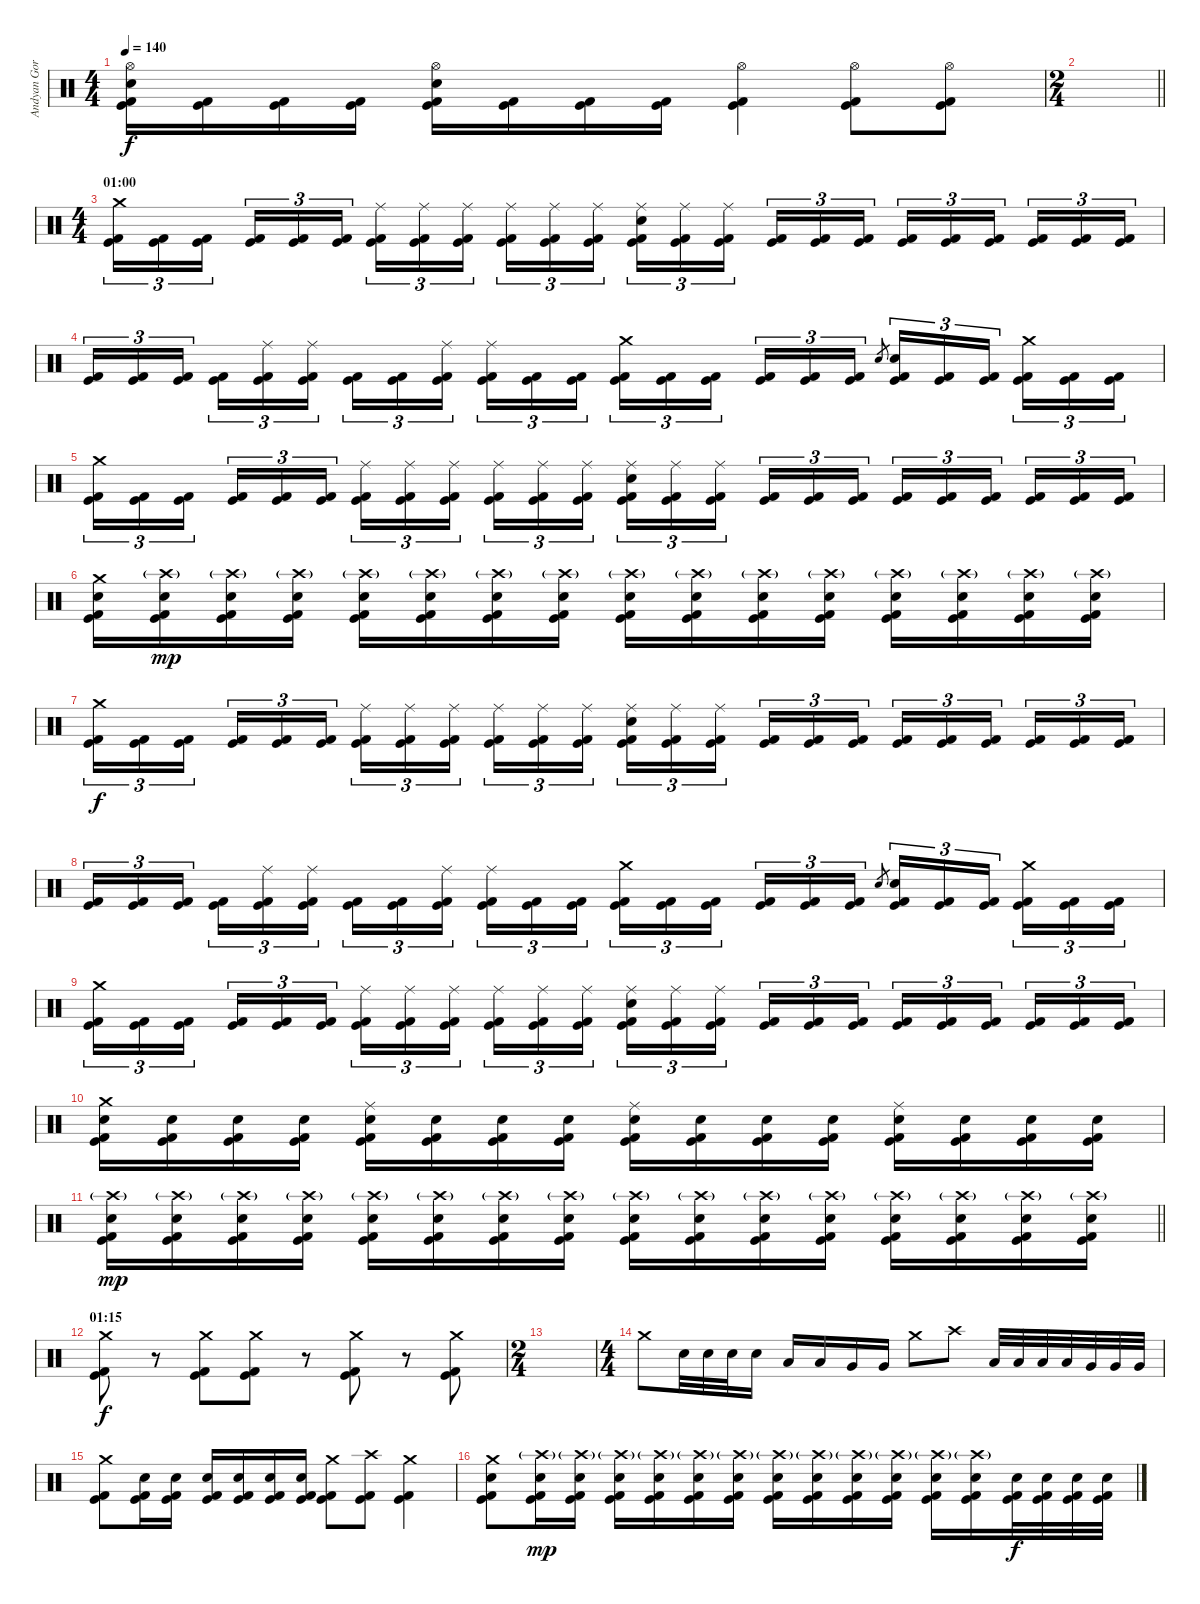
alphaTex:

\track ("Andyan Gorust" "Andyan Gor") {instrument percussion}
\staff {score}
\articulation defaults
\ts (4 4)
\tempo 140
\clef neutral
\ks c
("Hi-Hat (open)" "Electric Snare (hit)" "Kick (hit)" "Kick (hit) 2").16{dy f} ("Kick (hit)" "Kick (hit) 2").16 ("Kick (hit)" "Kick (hit) 2").16 ("Kick (hit)" "Kick (hit) 2").16 ("Hi-Hat (open)" "Electric Snare (hit)" "Kick (hit)" "Kick (hit) 2").16 ("Kick (hit)" "Kick (hit) 2").16 ("Kick (hit)" "Kick (hit) 2").16 ("Kick (hit)" "Kick (hit) 2").16 ("Hi-Hat (open)" "Kick (hit)" "Kick (hit) 2").4 ("Hi-Hat (open)" "Kick (hit)" "Kick (hit) 2").8 ("Hi-Hat (open)" "Kick (hit)" "Kick (hit) 2").8 |
\ts (2 4)
\barLineRight lightlight
|
\ts (4 4)
\section ("" "01:00")
("Crash medium (hit)" "Kick (hit)" "Kick (hit) 2").16{tu (3 2)} ("Kick (hit)" "Kick (hit) 2").16{tu (3 2)} ("Kick (hit)" "Kick (hit) 2").16{tu (3 2) beam splitsecondary} ("Kick (hit)" "Kick (hit) 2").16{tu (3 2)} ("Kick (hit)" "Kick (hit) 2").16{tu (3 2)} ("Kick (hit)" "Kick (hit) 2").16{tu (3 2)} ("Ride (middle)" "Kick (hit)" "Kick (hit) 2").16{tu (3 2)} ("Ride (middle)" "Kick (hit)" "Kick (hit) 2").16{tu (3 2)} ("Ride (middle)" "Kick (hit)" "Kick (hit) 2").16{tu (3 2) beam splitsecondary} ("Ride (middle)" "Kick (hit)" "Kick (hit) 2").16{tu (3 2)} ("Ride (middle)" "Kick (hit)" "Kick (hit) 2").16{tu (3 2)} ("Ride (middle)" "Kick (hit)" "Kick (hit) 2").16{tu (3 2)} ("Ride (middle)" "Electric Snare (hit)" "Kick (hit)" "Kick (hit) 2").16{tu (3 2)} ("Ride (middle)" "Kick (hit)" "Kick (hit) 2").16{tu (3 2)} ("Ride (middle)" "Kick (hit)" "Kick (hit) 2").16{tu (3 2) beam splitsecondary} ("Kick (hit)" "Kick (hit) 2").16{tu (3 2)} ("Kick (hit)" "Kick (hit) 2").16{tu (3 2)} ("Kick (hit)" "Kick (hit) 2").16{tu (3 2)} ("Kick (hit)" "Kick (hit) 2").16{tu (3 2)} ("Kick (hit)" "Kick (hit) 2").16{tu (3 2)} ("Kick (hit)" "Kick (hit) 2").16{tu (3 2) beam splitsecondary} ("Kick (hit)" "Kick (hit) 2").16{tu (3 2)} ("Kick (hit)" "Kick (hit) 2").16{tu (3 2)} ("Kick (hit)" "Kick (hit) 2").16{tu (3 2)} |
("Kick (hit)" "Kick (hit) 2").16{tu (3 2)} ("Kick (hit)" "Kick (hit) 2").16{tu (3 2)} ("Kick (hit)" "Kick (hit) 2").16{tu (3 2) beam splitsecondary} ("Kick (hit)" "Kick (hit) 2").16{tu (3 2)} ("Ride (middle)" "Kick (hit)" "Kick (hit) 2").16{tu (3 2)} ("Ride (middle)" "Kick (hit)" "Kick (hit) 2").16{tu (3 2)} ("Kick (hit)" "Kick (hit) 2").16{tu (3 2)} ("Kick (hit)" "Kick (hit) 2").16{tu (3 2)} ("Ride (middle)" "Kick (hit)" "Kick (hit) 2").16{tu (3 2) beam splitsecondary} ("Ride (middle)" "Kick (hit)" "Kick (hit) 2").16{tu (3 2)} ("Kick (hit)" "Kick (hit) 2").16{tu (3 2)} ("Kick (hit)" "Kick (hit) 2").16{tu (3 2)} ("Crash medium (hit)" "Kick (hit)" "Kick (hit) 2").16{tu (3 2)} ("Kick (hit)" "Kick (hit) 2").16{tu (3 2)} ("Kick (hit)" "Kick (hit) 2").16{tu (3 2) beam splitsecondary} ("Kick (hit)" "Kick (hit) 2").16{tu (3 2)} ("Kick (hit)" "Kick (hit) 2").16{tu (3 2)} ("Kick (hit)" "Kick (hit) 2").16{tu (3 2)} "Electric Snare (hit)".8{gr} ("Electric Snare (hit)" "Kick (hit)" "Kick (hit) 2").16{tu (3 2)} ("Kick (hit)" "Kick (hit) 2").16{tu (3 2)} ("Kick (hit)" "Kick (hit) 2").16{tu (3 2) beam splitsecondary} ("Crash medium (hit)" "Kick (hit)" "Kick (hit) 2").16{tu (3 2)} ("Kick (hit)" "Kick (hit) 2").16{tu (3 2)} ("Kick (hit)" "Kick (hit) 2").16{tu (3 2)} |
("Crash medium (hit)" "Kick (hit)" "Kick (hit) 2").16{tu (3 2)} ("Kick (hit)" "Kick (hit) 2").16{tu (3 2)} ("Kick (hit)" "Kick (hit) 2").16{tu (3 2) beam splitsecondary} ("Kick (hit)" "Kick (hit) 2").16{tu (3 2)} ("Kick (hit)" "Kick (hit) 2").16{tu (3 2)} ("Kick (hit)" "Kick (hit) 2").16{tu (3 2)} ("Ride (middle)" "Kick (hit)" "Kick (hit) 2").16{tu (3 2)} ("Ride (middle)" "Kick (hit)" "Kick (hit) 2").16{tu (3 2)} ("Ride (middle)" "Kick (hit)" "Kick (hit) 2").16{tu (3 2) beam splitsecondary} ("Ride (middle)" "Kick (hit)" "Kick (hit) 2").16{tu (3 2)} ("Ride (middle)" "Kick (hit)" "Kick (hit) 2").16{tu (3 2)} ("Ride (middle)" "Kick (hit)" "Kick (hit) 2").16{tu (3 2)} ("Ride (middle)" "Electric Snare (hit)" "Kick (hit)" "Kick (hit) 2").16{tu (3 2)} ("Ride (middle)" "Kick (hit)" "Kick (hit) 2").16{tu (3 2)} ("Ride (middle)" "Kick (hit)" "Kick (hit) 2").16{tu (3 2) beam splitsecondary} ("Kick (hit)" "Kick (hit) 2").16{tu (3 2)} ("Kick (hit)" "Kick (hit) 2").16{tu (3 2)} ("Kick (hit)" "Kick (hit) 2").16{tu (3 2)} ("Kick (hit)" "Kick (hit) 2").16{tu (3 2)} ("Kick (hit)" "Kick (hit) 2").16{tu (3 2)} ("Kick (hit)" "Kick (hit) 2").16{tu (3 2) beam splitsecondary} ("Kick (hit)" "Kick (hit) 2").16{tu (3 2)} ("Kick (hit)" "Kick (hit) 2").16{tu (3 2)} ("Kick (hit)" "Kick (hit) 2").16{tu (3 2)} |
("Crash medium (hit)" "Electric Snare (hit)" "Kick (hit)" "Kick (hit) 2").16 ("Crash high (hit)"{g} "Electric Snare (hit)" "Kick (hit)" "Kick (hit) 2").16{dy mp} ("Crash high (hit)"{g} "Electric Snare (hit)" "Kick (hit)" "Kick (hit) 2").16 ("Crash high (hit)"{g} "Electric Snare (hit)" "Kick (hit)" "Kick (hit) 2").16 ("Crash high (hit)"{g} "Electric Snare (hit)" "Kick (hit)" "Kick (hit) 2").16 ("Crash high (hit)"{g} "Electric Snare (hit)" "Kick (hit)" "Kick (hit) 2").16 ("Crash high (hit)"{g} "Electric Snare (hit)" "Kick (hit)" "Kick (hit) 2").16 ("Crash high (hit)"{g} "Electric Snare (hit)" "Kick (hit)" "Kick (hit) 2").16 ("Crash high (hit)"{g} "Electric Snare (hit)" "Kick (hit)" "Kick (hit) 2").16 ("Crash high (hit)"{g} "Electric Snare (hit)" "Kick (hit)" "Kick (hit) 2").16 ("Crash high (hit)"{g} "Electric Snare (hit)" "Kick (hit)" "Kick (hit) 2").16 ("Crash high (hit)"{g} "Electric Snare (hit)" "Kick (hit)" "Kick (hit) 2").16 ("Crash high (hit)"{g} "Electric Snare (hit)" "Kick (hit)" "Kick (hit) 2").16 ("Crash high (hit)"{g} "Electric Snare (hit)" "Kick (hit)" "Kick (hit) 2").16 ("Crash high (hit)"{g} "Electric Snare (hit)" "Kick (hit)" "Kick (hit) 2").16 ("Crash high (hit)"{g} "Electric Snare (hit)" "Kick (hit)" "Kick (hit) 2").16 |
("Crash medium (hit)" "Kick (hit)" "Kick (hit) 2").16{tu (3 2) dy f} ("Kick (hit)" "Kick (hit) 2").16{tu (3 2)} ("Kick (hit)" "Kick (hit) 2").16{tu (3 2) beam splitsecondary} ("Kick (hit)" "Kick (hit) 2").16{tu (3 2)} ("Kick (hit)" "Kick (hit) 2").16{tu (3 2)} ("Kick (hit)" "Kick (hit) 2").16{tu (3 2)} ("Ride (middle)" "Kick (hit)" "Kick (hit) 2").16{tu (3 2)} ("Ride (middle)" "Kick (hit)" "Kick (hit) 2").16{tu (3 2)} ("Ride (middle)" "Kick (hit)" "Kick (hit) 2").16{tu (3 2) beam splitsecondary} ("Ride (middle)" "Kick (hit)" "Kick (hit) 2").16{tu (3 2)} ("Ride (middle)" "Kick (hit)" "Kick (hit) 2").16{tu (3 2)} ("Ride (middle)" "Kick (hit)" "Kick (hit) 2").16{tu (3 2)} ("Ride (middle)" "Electric Snare (hit)" "Kick (hit)" "Kick (hit) 2").16{tu (3 2)} ("Ride (middle)" "Kick (hit)" "Kick (hit) 2").16{tu (3 2)} ("Ride (middle)" "Kick (hit)" "Kick (hit) 2").16{tu (3 2) beam splitsecondary} ("Kick (hit)" "Kick (hit) 2").16{tu (3 2)} ("Kick (hit)" "Kick (hit) 2").16{tu (3 2)} ("Kick (hit)" "Kick (hit) 2").16{tu (3 2)} ("Kick (hit)" "Kick (hit) 2").16{tu (3 2)} ("Kick (hit)" "Kick (hit) 2").16{tu (3 2)} ("Kick (hit)" "Kick (hit) 2").16{tu (3 2) beam splitsecondary} ("Kick (hit)" "Kick (hit) 2").16{tu (3 2)} ("Kick (hit)" "Kick (hit) 2").16{tu (3 2)} ("Kick (hit)" "Kick (hit) 2").16{tu (3 2)} |
("Kick (hit)" "Kick (hit) 2").16{tu (3 2)} ("Kick (hit)" "Kick (hit) 2").16{tu (3 2)} ("Kick (hit)" "Kick (hit) 2").16{tu (3 2) beam splitsecondary} ("Kick (hit)" "Kick (hit) 2").16{tu (3 2)} ("Ride (middle)" "Kick (hit)" "Kick (hit) 2").16{tu (3 2)} ("Ride (middle)" "Kick (hit)" "Kick (hit) 2").16{tu (3 2)} ("Kick (hit)" "Kick (hit) 2").16{tu (3 2)} ("Kick (hit)" "Kick (hit) 2").16{tu (3 2)} ("Ride (middle)" "Kick (hit)" "Kick (hit) 2").16{tu (3 2) beam splitsecondary} ("Ride (middle)" "Kick (hit)" "Kick (hit) 2").16{tu (3 2)} ("Kick (hit)" "Kick (hit) 2").16{tu (3 2)} ("Kick (hit)" "Kick (hit) 2").16{tu (3 2)} ("Crash medium (hit)" "Kick (hit)" "Kick (hit) 2").16{tu (3 2)} ("Kick (hit)" "Kick (hit) 2").16{tu (3 2)} ("Kick (hit)" "Kick (hit) 2").16{tu (3 2) beam splitsecondary} ("Kick (hit)" "Kick (hit) 2").16{tu (3 2)} ("Kick (hit)" "Kick (hit) 2").16{tu (3 2)} ("Kick (hit)" "Kick (hit) 2").16{tu (3 2)} "Electric Snare (hit)".8{gr} ("Electric Snare (hit)" "Kick (hit)" "Kick (hit) 2").16{tu (3 2)} ("Kick (hit)" "Kick (hit) 2").16{tu (3 2)} ("Kick (hit)" "Kick (hit) 2").16{tu (3 2) beam splitsecondary} ("Crash medium (hit)" "Kick (hit)" "Kick (hit) 2").16{tu (3 2)} ("Kick (hit)" "Kick (hit) 2").16{tu (3 2)} ("Kick (hit)" "Kick (hit) 2").16{tu (3 2)} |
("Crash medium (hit)" "Kick (hit)" "Kick (hit) 2").16{tu (3 2)} ("Kick (hit)" "Kick (hit) 2").16{tu (3 2)} ("Kick (hit)" "Kick (hit) 2").16{tu (3 2) beam splitsecondary} ("Kick (hit)" "Kick (hit) 2").16{tu (3 2)} ("Kick (hit)" "Kick (hit) 2").16{tu (3 2)} ("Kick (hit)" "Kick (hit) 2").16{tu (3 2)} ("Ride (middle)" "Kick (hit)" "Kick (hit) 2").16{tu (3 2)} ("Ride (middle)" "Kick (hit)" "Kick (hit) 2").16{tu (3 2)} ("Ride (middle)" "Kick (hit)" "Kick (hit) 2").16{tu (3 2) beam splitsecondary} ("Ride (middle)" "Kick (hit)" "Kick (hit) 2").16{tu (3 2)} ("Ride (middle)" "Kick (hit)" "Kick (hit) 2").16{tu (3 2)} ("Ride (middle)" "Kick (hit)" "Kick (hit) 2").16{tu (3 2)} ("Ride (middle)" "Electric Snare (hit)" "Kick (hit)" "Kick (hit) 2").16{tu (3 2)} ("Ride (middle)" "Kick (hit)" "Kick (hit) 2").16{tu (3 2)} ("Ride (middle)" "Kick (hit)" "Kick (hit) 2").16{tu (3 2) beam splitsecondary} ("Kick (hit)" "Kick (hit) 2").16{tu (3 2)} ("Kick (hit)" "Kick (hit) 2").16{tu (3 2)} ("Kick (hit)" "Kick (hit) 2").16{tu (3 2)} ("Kick (hit)" "Kick (hit) 2").16{tu (3 2)} ("Kick (hit)" "Kick (hit) 2").16{tu (3 2)} ("Kick (hit)" "Kick (hit) 2").16{tu (3 2) beam splitsecondary} ("Kick (hit)" "Kick (hit) 2").16{tu (3 2)} ("Kick (hit)" "Kick (hit) 2").16{tu (3 2)} ("Kick (hit)" "Kick (hit) 2").16{tu (3 2)} |
("Crash medium (hit)" "Electric Snare (hit)" "Kick (hit)" "Kick (hit) 2").16 ("Electric Snare (hit)" "Kick (hit)" "Kick (hit) 2").16 ("Electric Snare (hit)" "Kick (hit)" "Kick (hit) 2").16 ("Electric Snare (hit)" "Kick (hit)" "Kick (hit) 2").16 ("Ride (middle)" "Electric Snare (hit)" "Kick (hit)" "Kick (hit) 2").16 ("Electric Snare (hit)" "Kick (hit)" "Kick (hit) 2").16 ("Electric Snare (hit)" "Kick (hit)" "Kick (hit) 2").16 ("Electric Snare (hit)" "Kick (hit)" "Kick (hit) 2").16 ("Ride (middle)" "Electric Snare (hit)" "Kick (hit)" "Kick (hit) 2").16 ("Electric Snare (hit)" "Kick (hit)" "Kick (hit) 2").16 ("Electric Snare (hit)" "Kick (hit)" "Kick (hit) 2").16 ("Electric Snare (hit)" "Kick (hit)" "Kick (hit) 2").16 ("Ride (middle)" "Electric Snare (hit)" "Kick (hit)" "Kick (hit) 2").16 ("Electric Snare (hit)" "Kick (hit)" "Kick (hit) 2").16 ("Electric Snare (hit)" "Kick (hit)" "Kick (hit) 2").16 ("Electric Snare (hit)" "Kick (hit)" "Kick (hit) 2").16 |
\barLineRight lightlight
("Crash high (hit)"{g} "Electric Snare (hit)" "Kick (hit)" "Kick (hit) 2").16{dy mp} ("Crash high (hit)"{g} "Electric Snare (hit)" "Kick (hit)" "Kick (hit) 2").16 ("Crash high (hit)"{g} "Electric Snare (hit)" "Kick (hit)" "Kick (hit) 2").16 ("Crash high (hit)"{g} "Electric Snare (hit)" "Kick (hit)" "Kick (hit) 2").16 ("Crash high (hit)"{g} "Electric Snare (hit)" "Kick (hit)" "Kick (hit) 2").16 ("Crash high (hit)"{g} "Electric Snare (hit)" "Kick (hit)" "Kick (hit) 2").16 ("Crash high (hit)"{g} "Electric Snare (hit)" "Kick (hit)" "Kick (hit) 2").16 ("Crash high (hit)"{g} "Electric Snare (hit)" "Kick (hit)" "Kick (hit) 2").16 ("Crash high (hit)"{g} "Electric Snare (hit)" "Kick (hit)" "Kick (hit) 2").16 ("Crash high (hit)"{g} "Electric Snare (hit)" "Kick (hit)" "Kick (hit) 2").16 ("Crash high (hit)"{g} "Electric Snare (hit)" "Kick (hit)" "Kick (hit) 2").16 ("Crash high (hit)"{g} "Electric Snare (hit)" "Kick (hit)" "Kick (hit) 2").16 ("Crash high (hit)"{g} "Electric Snare (hit)" "Kick (hit)" "Kick (hit) 2").16 ("Crash high (hit)"{g} "Electric Snare (hit)" "Kick (hit)" "Kick (hit) 2").16 ("Crash high (hit)"{g} "Electric Snare (hit)" "Kick (hit)" "Kick (hit) 2").16 ("Crash high (hit)"{g} "Electric Snare (hit)" "Kick (hit)" "Kick (hit) 2").16 |
\section ("" "01:15")
("Crash medium (hit)" "Kick (hit)" "Kick (hit) 2").8{dy f} r.8 ("Crash medium (hit)" "Kick (hit)" "Kick (hit) 2").8 ("Crash medium (hit)" "Kick (hit)" "Kick (hit) 2").8 r.8 ("Crash medium (hit)" "Kick (hit)" "Kick (hit) 2").8 r.8 ("Crash medium (hit)" "Kick (hit)" "Kick (hit) 2").8 |
\ts (2 4)
|
\ts (4 4)
"Crash medium (hit)".8 "Electric Snare (hit)".32 "Electric Snare (hit)".32 "Electric Snare (hit)".32 "Electric Snare (hit)".16 "Low Tom (hit)".16 "Low Tom (hit)".16 "Very Low Tom (hit)".16 "Very Low Tom (hit)".16 "Crash medium (hit)".8 "Crash high (hit)".8 "Low Tom (hit)".32 "Low Tom (hit)".32 "Low Floor Tom (hit)".32 "Low Floor Tom (hit)".32 "Very Low Tom (hit)".32 "Very Low Tom (hit)".32 "Very Low Tom (hit)".32 |
("Crash medium (hit)" "Kick (hit)" "Kick (hit) 2").8 ("Electric Snare (hit)" "Kick (hit)" "Kick (hit) 2").16 ("Electric Snare (hit)" "Kick (hit)" "Kick (hit) 2").16 ("Electric Snare (hit)" "Kick (hit)" "Kick (hit) 2").16 ("Electric Snare (hit)" "Kick (hit)" "Kick (hit) 2").16 ("Electric Snare (hit)" "Kick (hit)" "Kick (hit) 2").16 ("Electric Snare (hit)" "Kick (hit)" "Kick (hit) 2").16 ("Crash medium (hit)" "Kick (hit)" "Kick (hit) 2").8 ("Crash high (hit)" "Kick (hit)" "Kick (hit) 2").8 ("Crash medium (hit)" "Kick (hit)" "Kick (hit) 2").4 |
("Crash medium (hit)" "Electric Snare (hit)" "Kick (hit)" "Kick (hit) 2").8 ("Crash high (hit)"{g} "Electric Snare (hit)" "Kick (hit)" "Kick (hit) 2").16{dy mp} ("Crash high (hit)"{g} "Electric Snare (hit)" "Kick (hit)" "Kick (hit) 2").16 ("Crash high (hit)"{g} "Electric Snare (hit)" "Kick (hit)" "Kick (hit) 2").16 ("Crash high (hit)"{g} "Electric Snare (hit)" "Kick (hit)" "Kick (hit) 2").16 ("Crash high (hit)"{g} "Electric Snare (hit)" "Kick (hit)" "Kick (hit) 2").16 ("Crash high (hit)"{g} "Electric Snare (hit)" "Kick (hit)" "Kick (hit) 2").16 ("Crash high (hit)"{g} "Electric Snare (hit)" "Kick (hit)" "Kick (hit) 2").16 ("Crash high (hit)"{g} "Electric Snare (hit)" "Kick (hit)" "Kick (hit) 2").16 ("Crash high (hit)"{g} "Electric Snare (hit)" "Kick (hit)" "Kick (hit) 2").16 ("Crash high (hit)"{g} "Electric Snare (hit)" "Kick (hit)" "Kick (hit) 2").16 ("Crash high (hit)"{g} "Electric Snare (hit)" "Kick (hit)" "Kick (hit) 2").16 ("Crash high (hit)"{g} "Electric Snare (hit)" "Kick (hit)" "Kick (hit) 2").16 ("Electric Snare (hit)" "Kick (hit)" "Kick (hit) 2").32{dy f} ("Electric Snare (hit)" "Kick (hit)" "Kick (hit) 2").32 ("Electric Snare (hit)" "Kick (hit)" "Kick (hit) 2").32 ("Electric Snare (hit)" "Kick (hit)" "Kick (hit) 2").32
